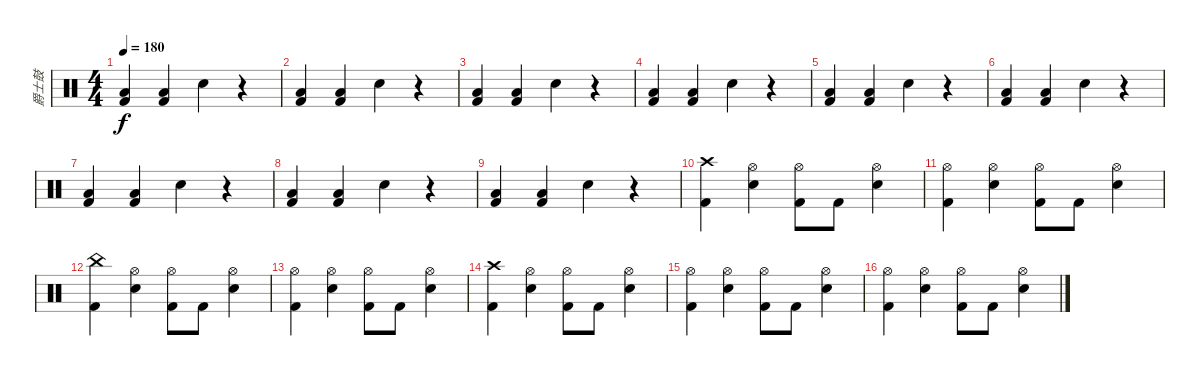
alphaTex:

\track ("爵士鼓" "爵士鼓") {instrument percussion}
\staff {score}
\articulation defaults
\ts (4 4)
\tempo 180
\clef neutral
\ks c
("Low Tom (hit)" "Kick (hit) 2").4{dy f} ("Low Tom (hit)" "Kick (hit) 2").4 "Snare (hit) 2".4 r.4 |
("Low Tom (hit)" "Kick (hit) 2").4 ("Low Tom (hit)" "Kick (hit) 2").4 "Snare (hit) 2".4 r.4 |
("Low Tom (hit)" "Kick (hit) 2").4 ("Low Tom (hit)" "Kick (hit) 2").4 "Snare (hit) 2".4 r.4 |
("Low Tom (hit)" "Kick (hit) 2").4 ("Low Tom (hit)" "Kick (hit) 2").4 "Snare (hit) 2".4 r.4 |
("Low Tom (hit)" "Kick (hit) 2").4 ("Low Tom (hit)" "Kick (hit) 2").4 "Snare (hit) 2".4 r.4 |
("Low Tom (hit)" "Kick (hit) 2").4 ("Low Tom (hit)" "Kick (hit) 2").4 "Snare (hit) 2".4 r.4 |
("Low Tom (hit)" "Kick (hit) 2").4 ("Low Tom (hit)" "Kick (hit) 2").4 "Snare (hit) 2".4 r.4 |
("Low Tom (hit)" "Kick (hit) 2").4 ("Low Tom (hit)" "Kick (hit) 2").4 "Snare (hit) 2".4 r.4 |
("Low Tom (hit)" "Kick (hit) 2").4 ("Low Tom (hit)" "Kick (hit) 2").4 "Snare (hit) 2".4 r.4 |
("Crash high (hit)" "Kick (hit) 2").4 ("Hi-Hat (open)" "Snare (hit) 2").4 ("Hi-Hat (open)" "Kick (hit) 2").8 "Kick (hit) 2".8 ("Hi-Hat (open)" "Snare (hit) 2").4 |
("Hi-Hat (open)" "Kick (hit) 2").4 ("Hi-Hat (open)" "Snare (hit) 2").4 ("Hi-Hat (open)" "Kick (hit) 2").8 "Kick (hit) 2".8 ("Hi-Hat (open)" "Snare (hit) 2").4 |
("China (hit)" "Kick (hit) 2").4 ("Hi-Hat (open)" "Snare (hit) 2").4 ("Hi-Hat (open)" "Kick (hit) 2").8 "Kick (hit) 2".8 ("Hi-Hat (open)" "Snare (hit) 2").4 |
("Hi-Hat (open)" "Kick (hit) 2").4 ("Hi-Hat (open)" "Snare (hit) 2").4 ("Hi-Hat (open)" "Kick (hit) 2").8 "Kick (hit) 2".8 ("Hi-Hat (open)" "Snare (hit) 2").4 |
("Crash high (hit)" "Kick (hit) 2").4 ("Hi-Hat (open)" "Snare (hit) 2").4 ("Hi-Hat (open)" "Kick (hit) 2").8 "Kick (hit) 2".8 ("Hi-Hat (open)" "Snare (hit) 2").4 |
("Hi-Hat (open)" "Kick (hit) 2").4 ("Hi-Hat (open)" "Snare (hit) 2").4 ("Hi-Hat (open)" "Kick (hit) 2").8 "Kick (hit) 2".8 ("Hi-Hat (open)" "Snare (hit) 2").4 |
("Hi-Hat (open)" "Kick (hit) 2").4 ("Hi-Hat (open)" "Snare (hit) 2").4 ("Hi-Hat (open)" "Kick (hit) 2").8 "Kick (hit) 2".8 ("Hi-Hat (open)" "Snare (hit) 2").4
